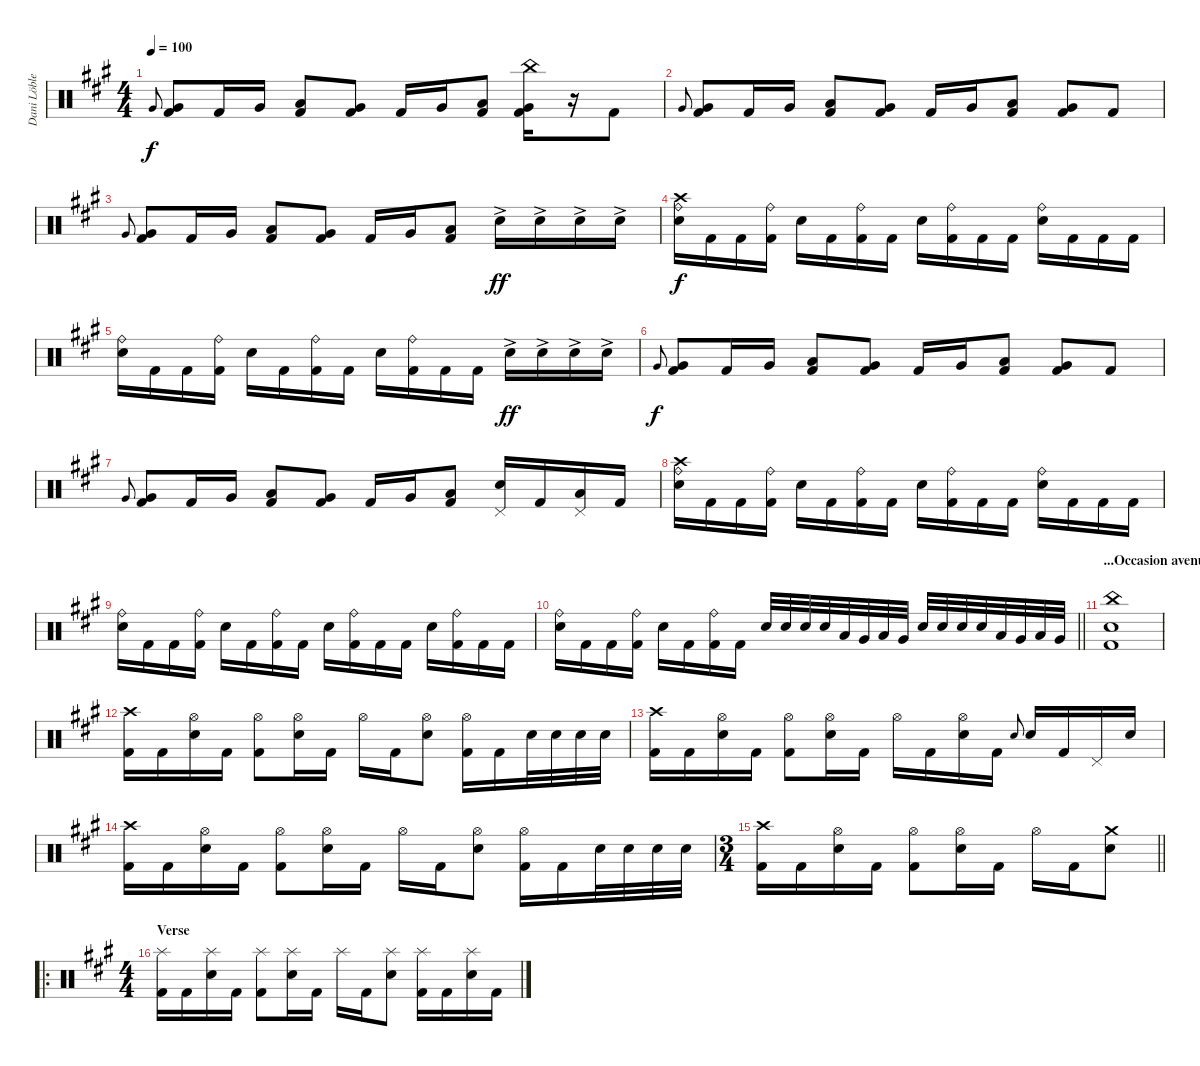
\track ("Dani Löble" "Dani Löble") {instrument percussion}
\staff {score}
\articulation defaults
\ts (4 4)
\tempo 100
\clef neutral
\ks f#minor "Very Low Tom (hit)".8{gr onbeat dy f}
("Very Low Tom (hit)" "Kick (hit) 2").8 "Kick (hit) 2".16 "Very Low Tom (hit)".16 ("Low Floor Tom (hit)" "Kick (hit) 2").8 ("Very Low Tom (hit)" "Kick (hit) 2").8 "Kick (hit) 2".16 "Very Low Tom (hit)".16 ("Low Floor Tom (hit)" "Kick (hit) 2").8 ("China (hit)" "Very Low Tom (hit)" "Kick (hit) 2").16 r.16 "Kick (hit) 2".8 |
"Very Low Tom (hit)".8{gr onbeat} ("Very Low Tom (hit)" "Kick (hit) 2").8 "Kick (hit) 2".16 "Very Low Tom (hit)".16 ("Low Floor Tom (hit)" "Kick (hit) 2").8 ("Very Low Tom (hit)" "Kick (hit) 2").8 "Kick (hit) 2".16 "Very Low Tom (hit)".16 ("Low Floor Tom (hit)" "Kick (hit) 2").8 ("Very Low Tom (hit)" "Kick (hit) 2").8 "Kick (hit) 2".8 |
"Very Low Tom (hit)".8{gr onbeat} ("Very Low Tom (hit)" "Kick (hit) 2").8 "Kick (hit) 2".16 "Very Low Tom (hit)".16 ("Low Floor Tom (hit)" "Kick (hit) 2").8 ("Very Low Tom (hit)" "Kick (hit) 2").8 "Kick (hit) 2".16 "Very Low Tom (hit)".16 ("Low Floor Tom (hit)" "Kick (hit) 2").8 "Snare (hit) 2"{ac}.16{dy ff} "Snare (hit) 2"{ac}.16 "Snare (hit) 2"{ac}.16 "Snare (hit) 2"{ac}.16 |
("Ride (bell)" "Crash high (hit)" "Snare (hit) 2").16{dy f} "Kick (hit) 2".16 "Kick (hit) 2".16 ("Ride (bell)" "Kick (hit) 2").16 "Snare (hit) 2".16 "Kick (hit) 2".16 ("Ride (bell)" "Kick (hit) 2").16 "Kick (hit) 2".16 "Snare (hit) 2".16 ("Ride (bell)" "Kick (hit) 2").16 "Kick (hit) 2".16 "Kick (hit) 2".16 ("Ride (bell)" "Snare (hit) 2").16 "Kick (hit) 2".16 "Kick (hit) 2".16 "Kick (hit) 2".16 |
("Ride (bell)" "Snare (hit) 2").16 "Kick (hit) 2".16 "Kick (hit) 2".16 ("Ride (bell)" "Kick (hit) 2").16 "Snare (hit) 2".16 "Kick (hit) 2".16 ("Ride (bell)" "Kick (hit) 2").16 "Kick (hit) 2".16 "Snare (hit) 2".16 ("Ride (bell)" "Kick (hit) 2").16 "Kick (hit) 2".16 "Kick (hit) 2".16 "Snare (hit) 2"{ac}.16{dy ff} "Snare (hit) 2"{ac}.16 "Snare (hit) 2"{ac}.16 "Snare (hit) 2"{ac}.16 |
"Very Low Tom (hit)".8{gr onbeat dy f} ("Very Low Tom (hit)" "Kick (hit) 2").8 "Kick (hit) 2".16 "Very Low Tom (hit)".16 ("Low Floor Tom (hit)" "Kick (hit) 2").8 ("Very Low Tom (hit)" "Kick (hit) 2").8 "Kick (hit) 2".16 "Very Low Tom (hit)".16 ("Low Floor Tom (hit)" "Kick (hit) 2").8 ("Very Low Tom (hit)" "Kick (hit) 2").8 "Kick (hit) 2".8 |
"Very Low Tom (hit)".8{gr onbeat} ("Very Low Tom (hit)" "Kick (hit) 2").8 "Kick (hit) 2".16 "Very Low Tom (hit)".16 ("Low Floor Tom (hit)" "Kick (hit) 2").8 ("Very Low Tom (hit)" "Kick (hit) 2").8 "Kick (hit) 2".16 "Very Low Tom (hit)".16 ("Low Floor Tom (hit)" "Kick (hit) 2").8 ("Pedal Hi-Hat (hit)" "Snare (hit) 2").16 "Kick (hit) 2".16 ("Pedal Hi-Hat (hit)" "Low Floor Tom (hit)").16 "Kick (hit) 2".16 |
("Ride (bell)" "Crash high (hit)" "Snare (hit) 2").16 "Kick (hit) 2".16 "Kick (hit) 2".16 ("Ride (bell)" "Kick (hit) 2").16 "Snare (hit) 2".16 "Kick (hit) 2".16 ("Ride (bell)" "Kick (hit) 2").16 "Kick (hit) 2".16 "Snare (hit) 2".16 ("Ride (bell)" "Kick (hit) 2").16 "Kick (hit) 2".16 "Kick (hit) 2".16 ("Ride (bell)" "Snare (hit) 2").16 "Kick (hit) 2".16 "Kick (hit) 2".16 "Kick (hit) 2".16 |
("Ride (bell)" "Snare (hit) 2").16 "Kick (hit) 2".16 "Kick (hit) 2".16 ("Ride (bell)" "Kick (hit) 2").16 "Snare (hit) 2".16 "Kick (hit) 2".16 ("Ride (bell)" "Kick (hit) 2").16 "Kick (hit) 2".16 "Snare (hit) 2".16 ("Ride (bell)" "Kick (hit) 2").16 "Kick (hit) 2".16 "Kick (hit) 2".16 "Snare (hit) 2".16 ("Ride (bell)" "Kick (hit) 2").16 "Kick (hit) 2".16 "Kick (hit) 2".16 |
\barLineRight lightlight
("Ride (bell)" "Snare (hit) 2").16 "Kick (hit) 2".16 "Kick (hit) 2".16 ("Ride (bell)" "Kick (hit) 2").16 "Snare (hit) 2".16 "Kick (hit) 2".16 ("Ride (bell)" "Kick (hit) 2").16 "Kick (hit) 2".16 "Snare (hit) 2".32 "Snare (hit) 2".32 "Snare (hit) 2".32 "Snare (hit) 2".32 "Low Tom (hit)".32 "Very Low Tom (hit)".32 "Low Floor Tom (hit)".32 "Very Low Tom (hit)".32 "Snare (hit) 2".32 "Snare (hit) 2".32 "Snare (hit) 2".32 "Snare (hit) 2".32 "Low Tom (hit)".32 "Very Low Tom (hit)".32 "Low Floor Tom (hit)".32 "Very Low Tom (hit)".32 |
\section ("" "...Occasion avenue")
("China (hit)" "Snare (hit) 2" "Kick (hit) 2").1 |
("Crash high (hit)" "Kick (hit) 2").16 "Kick (hit) 2".16 ("Hi-Hat (open)" "Snare (hit) 2").16 "Kick (hit) 2".16 ("Hi-Hat (open)" "Kick (hit) 2").8 ("Hi-Hat (open)" "Snare (hit) 2").16 "Kick (hit) 2".16 "Hi-Hat (open)".16 "Kick (hit) 2".16 ("Hi-Hat (open)" "Snare (hit) 2").8 ("Hi-Hat (open)" "Kick (hit) 2").16 "Kick (hit) 2".16 "Snare (hit) 2".32 "Snare (hit) 2".32 "Snare (hit) 2".32 "Snare (hit) 2".32 |
("Crash high (hit)" "Kick (hit) 2").16 "Kick (hit) 2".16 ("Hi-Hat (open)" "Snare (hit) 2").16 "Kick (hit) 2".16 ("Hi-Hat (open)" "Kick (hit) 2").8 ("Hi-Hat (open)" "Snare (hit) 2").16 "Kick (hit) 2".16 "Hi-Hat (open)".16 "Kick (hit) 2".16 ("Hi-Hat (open)" "Snare (hit) 2").16 "Kick (hit) 2".16 "Snare (hit) 2".8{gr onbeat} "Snare (hit) 2".16 "Kick (hit) 2".16 "Pedal Hi-Hat (hit)".16 "Snare (hit) 2".16 |
("Crash high (hit)" "Kick (hit) 2").16 "Kick (hit) 2".16 ("Hi-Hat (open)" "Snare (hit) 2").16 "Kick (hit) 2".16 ("Hi-Hat (open)" "Kick (hit) 2").8 ("Hi-Hat (open)" "Snare (hit) 2").16 "Kick (hit) 2".16 "Hi-Hat (open)".16 "Kick (hit) 2".16 ("Hi-Hat (open)" "Snare (hit) 2").8 ("Hi-Hat (open)" "Kick (hit) 2").16 "Kick (hit) 2".16 "Snare (hit) 2".32 "Snare (hit) 2".32 "Snare (hit) 2".32 "Snare (hit) 2".32 |
\ts (3 4)
\barLineRight lightlight
("Crash high (hit)" "Kick (hit) 2").16 "Kick (hit) 2".16 ("Hi-Hat (open)" "Snare (hit) 2").16 "Kick (hit) 2".16 ("Hi-Hat (open)" "Kick (hit) 2").8 ("Hi-Hat (open)" "Snare (hit) 2").16 "Kick (hit) 2".16 "Hi-Hat (open)".16 "Kick (hit) 2".16 ("Crash medium (hit)" "Snare (hit) 2").8 |
\ro
\ts (4 4)
\section ("" "Verse")
("Splash (hit)" "Kick (hit) 2").16 "Kick (hit) 2".16 ("Splash (hit)" "Snare (hit) 2").16 "Kick (hit) 2".16 ("Splash (hit)" "Kick (hit) 2").8 ("Splash (hit)" "Snare (hit) 2").16 "Kick (hit) 2".16 "Splash (hit)".16 "Kick (hit) 2".16 ("Splash (hit)" "Snare (hit) 2").8 ("Splash (hit)" "Kick (hit) 2").16 "Kick (hit) 2".16 ("Splash (hit)" "Snare (hit) 2").16 "Kick (hit) 2".16
